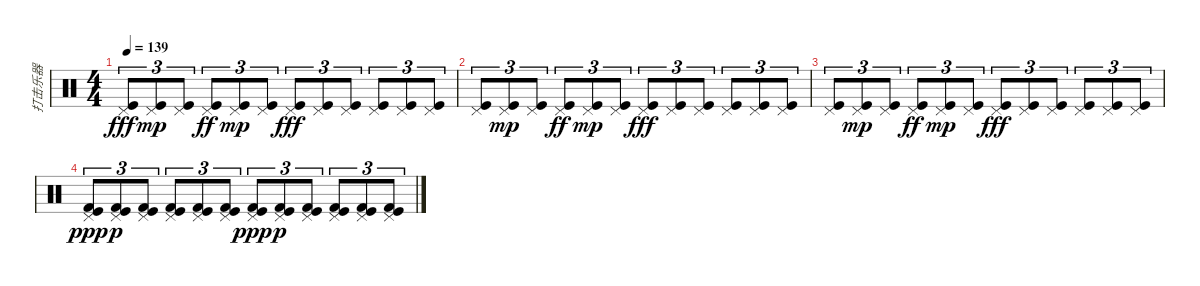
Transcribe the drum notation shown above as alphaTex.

\track ("打击乐器" "打击乐器") {instrument percussion}
\staff {score}
\articulation defaults
\ts (4 4)
\tempo 139
\clef neutral
\ks c
("Kick (hit)" "Pedal Hi-Hat (hit)").8{tu (3 2) dy fff} ("Kick (hit)" "Pedal Hi-Hat (hit)").8{tu (3 2) dy mp} ("Kick (hit)" "Pedal Hi-Hat (hit)").8{tu (3 2)} ("Kick (hit)" "Pedal Hi-Hat (hit)").8{tu (3 2) dy ff} ("Kick (hit)" "Pedal Hi-Hat (hit)").8{tu (3 2) dy mp} ("Kick (hit)" "Pedal Hi-Hat (hit)").8{tu (3 2)} ("Kick (hit)" "Pedal Hi-Hat (hit)").8{tu (3 2) dy fff} ("Kick (hit)" "Pedal Hi-Hat (hit)").8{tu (3 2)} ("Kick (hit)" "Pedal Hi-Hat (hit)").8{tu (3 2)} ("Kick (hit)" "Pedal Hi-Hat (hit)").8{tu (3 2)} ("Kick (hit)" "Pedal Hi-Hat (hit)").8{tu (3 2)} ("Kick (hit)" "Pedal Hi-Hat (hit)").8{tu (3 2)} |
("Kick (hit)" "Pedal Hi-Hat (hit)").8{tu (3 2)} ("Kick (hit)" "Pedal Hi-Hat (hit)").8{tu (3 2) dy mp} ("Kick (hit)" "Pedal Hi-Hat (hit)").8{tu (3 2)} ("Kick (hit)" "Pedal Hi-Hat (hit)").8{tu (3 2) dy ff} ("Kick (hit)" "Pedal Hi-Hat (hit)").8{tu (3 2) dy mp} ("Kick (hit)" "Pedal Hi-Hat (hit)").8{tu (3 2)} ("Kick (hit)" "Pedal Hi-Hat (hit)").8{tu (3 2) dy fff} ("Kick (hit)" "Pedal Hi-Hat (hit)").8{tu (3 2)} ("Kick (hit)" "Pedal Hi-Hat (hit)").8{tu (3 2)} ("Kick (hit)" "Pedal Hi-Hat (hit)").8{tu (3 2)} ("Kick (hit)" "Pedal Hi-Hat (hit)").8{tu (3 2)} ("Kick (hit)" "Pedal Hi-Hat (hit)").8{tu (3 2)} |
("Kick (hit)" "Pedal Hi-Hat (hit)").8{tu (3 2)} ("Kick (hit)" "Pedal Hi-Hat (hit)").8{tu (3 2) dy mp} ("Kick (hit)" "Pedal Hi-Hat (hit)").8{tu (3 2)} ("Kick (hit)" "Pedal Hi-Hat (hit)").8{tu (3 2) dy ff} ("Kick (hit)" "Pedal Hi-Hat (hit)").8{tu (3 2) dy mp} ("Kick (hit)" "Pedal Hi-Hat (hit)").8{tu (3 2)} ("Kick (hit)" "Pedal Hi-Hat (hit)").8{tu (3 2) dy fff} ("Kick (hit)" "Pedal Hi-Hat (hit)").8{tu (3 2)} ("Kick (hit)" "Pedal Hi-Hat (hit)").8{tu (3 2)} ("Kick (hit)" "Pedal Hi-Hat (hit)").8{tu (3 2)} ("Kick (hit)" "Pedal Hi-Hat (hit)").8{tu (3 2)} ("Kick (hit)" "Pedal Hi-Hat (hit)").8{tu (3 2)} |
("Kick (hit)" "Pedal Hi-Hat (hit)" "Kick (hit) 2").8{tu (3 2) dy ppp} ("Kick (hit)" "Pedal Hi-Hat (hit)" "Kick (hit) 2").8{tu (3 2) dy p} ("Kick (hit)" "Pedal Hi-Hat (hit)" "Kick (hit) 2").8{tu (3 2)} ("Kick (hit)" "Pedal Hi-Hat (hit)" "Kick (hit) 2").8{tu (3 2)} ("Kick (hit)" "Pedal Hi-Hat (hit)" "Kick (hit) 2").8{tu (3 2)} ("Kick (hit)" "Pedal Hi-Hat (hit)" "Kick (hit) 2").8{tu (3 2)} ("Kick (hit)" "Pedal Hi-Hat (hit)" "Kick (hit) 2").8{tu (3 2) dy ppp} ("Kick (hit)" "Pedal Hi-Hat (hit)" "Kick (hit) 2").8{tu (3 2) dy p} ("Kick (hit)" "Pedal Hi-Hat (hit)" "Kick (hit) 2").8{tu (3 2)} ("Kick (hit)" "Pedal Hi-Hat (hit)" "Kick (hit) 2").8{tu (3 2)} ("Kick (hit)" "Pedal Hi-Hat (hit)" "Kick (hit) 2").8{tu (3 2)} ("Kick (hit)" "Pedal Hi-Hat (hit)" "Kick (hit) 2").8{tu (3 2)}
